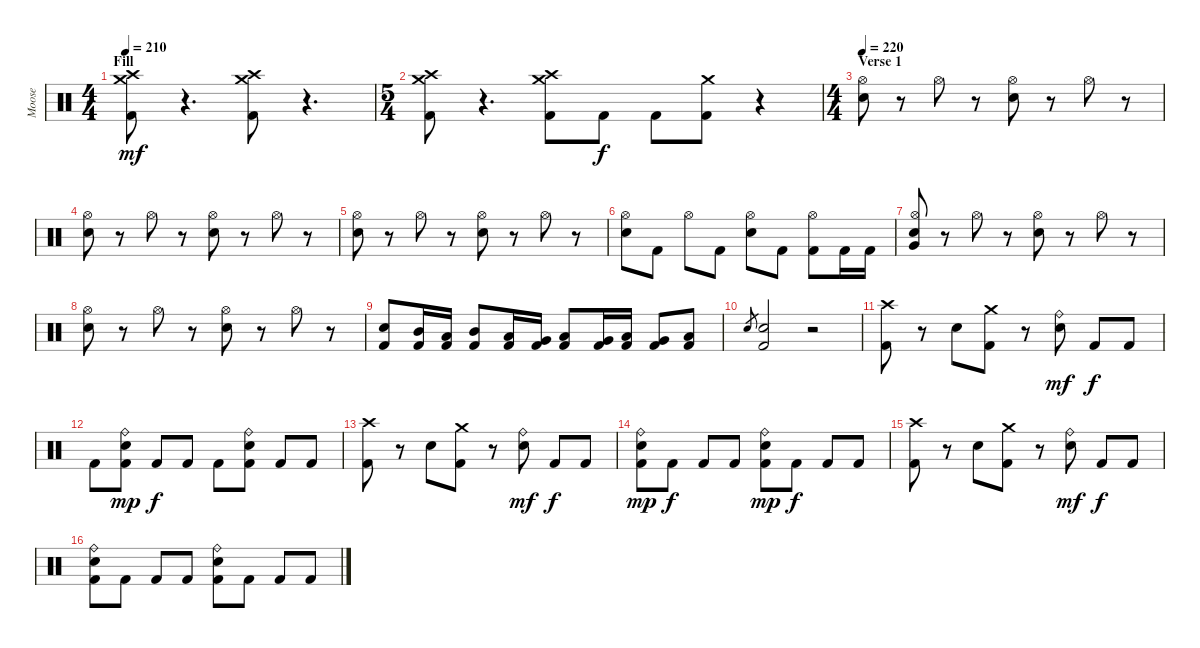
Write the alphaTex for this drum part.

\track ("Moose" "Moose") {instrument percussion}
\staff {score}
\articulation defaults
\ts (4 4)
\section ("" "Fill")
\tempo 210
\clef neutral
\ks c
("Kick (hit) 2" "Crash high (hit)" "Crash medium (hit)").8{dy mf} r.4{d} ("Kick (hit) 2" "Crash high (hit)" "Crash medium (hit)").8 r.4{d} |
\ts (5 4)
("Kick (hit) 2" "Crash high (hit)" "Crash medium (hit)").8 r.4{d} ("Kick (hit) 2" "Crash high (hit)" "Crash medium (hit)").8 "Kick (hit) 2".8{dy f} "Kick (hit) 2".8 ("Kick (hit) 2" "Crash medium (hit)").8 r.4 |
\ts (4 4)
\section ("" "Verse 1")
\tempo 220
("Snare (hit) 2" "Hi-Hat (open)").8 r.8 "Hi-Hat (open)".8 r.8 ("Snare (hit) 2" "Hi-Hat (open)").8 r.8 "Hi-Hat (open)".8 r.8 |
("Snare (hit) 2" "Hi-Hat (open)").8 r.8 "Hi-Hat (open)".8 r.8 ("Snare (hit) 2" "Hi-Hat (open)").8 r.8 "Hi-Hat (open)".8 r.8 |
("Snare (hit) 2" "Hi-Hat (open)").8 r.8 "Hi-Hat (open)".8 r.8 ("Snare (hit) 2" "Hi-Hat (open)").8 r.8 "Hi-Hat (open)".8 r.8 |
("Snare (hit) 2" "Hi-Hat (open)").8 "Kick (hit) 2".8 "Hi-Hat (open)".8 "Kick (hit) 2".8 ("Snare (hit) 2" "Hi-Hat (open)").8 "Kick (hit) 2".8 ("Kick (hit) 2" "Hi-Hat (open)").8 "Kick (hit) 2".16 "Kick (hit) 2".16 |
("Very Low Tom (hit)" "Snare (hit) 2" "Hi-Hat (open)").8 r.8 "Hi-Hat (open)".8 r.8 ("Snare (hit) 2" "Hi-Hat (open)").8 r.8 "Hi-Hat (open)".8 r.8 |
("Snare (hit) 2" "Hi-Hat (open)").8 r.8 "Hi-Hat (open)".8 r.8 ("Snare (hit) 2" "Hi-Hat (open)").8 r.8 "Hi-Hat (open)".8 r.8 |
("Kick (hit) 2" "Snare (hit) 2").8 ("Kick (hit) 2" "Mid Tom (hit)").16 ("Kick (hit) 2" "Low Tom (hit)").16 ("Kick (hit) 2" "Mid Tom (hit)").8 ("Kick (hit) 2" "Low Tom (hit)").16 ("Kick (hit) 2" "Very Low Tom (hit)").16 ("Kick (hit) 2" "Low Floor Tom (hit)").8 ("Kick (hit) 2" "Very Low Tom (hit)").16 ("Kick (hit) 2" "Low Floor Tom (hit)").16 ("Kick (hit) 2" "Very Low Tom (hit)").8 ("Kick (hit) 2" "Low Floor Tom (hit)").8 |
"Snare (hit) 2".8{gr} ("Kick (hit) 2" "Snare (hit) 2").2 r.2 |
("Kick (hit) 2" "Crash high (hit)").8 r.8 "Snare (hit) 2".8 ("Kick (hit) 2" "Crash medium (hit)").8 r.8 ("Snare (hit) 2" "Ride (bell)").8{dy mf} "Kick (hit) 2".8{dy f} "Kick (hit) 2".8 |
"Kick (hit) 2".8 ("Kick (hit) 2" "Snare (hit) 2" "Ride (bell)").8{dy mp} "Kick (hit) 2".8{dy f} "Kick (hit) 2".8 "Kick (hit) 2".8 ("Kick (hit) 2" "Snare (hit) 2" "Ride (bell)").8 "Kick (hit) 2".8 "Kick (hit) 2".8 |
("Kick (hit) 2" "Crash high (hit)").8 r.8 "Snare (hit) 2".8 ("Kick (hit) 2" "Crash medium (hit)").8 r.8 ("Snare (hit) 2" "Ride (bell)").8{dy mf} "Kick (hit) 2".8{dy f} "Kick (hit) 2".8 |
("Kick (hit) 2" "Snare (hit) 2" "Ride (bell)").8{dy mp} "Kick (hit) 2".8{dy f} "Kick (hit) 2".8 "Kick (hit) 2".8 ("Kick (hit) 2" "Snare (hit) 2" "Ride (bell)").8{dy mp} "Kick (hit) 2".8{dy f} "Kick (hit) 2".8 "Kick (hit) 2".8 |
("Kick (hit) 2" "Crash high (hit)").8 r.8 "Snare (hit) 2".8 ("Kick (hit) 2" "Crash medium (hit)").8 r.8 ("Snare (hit) 2" "Ride (bell)").8{dy mf} "Kick (hit) 2".8{dy f} "Kick (hit) 2".8 |
("Kick (hit) 2" "Snare (hit) 2" "Ride (bell)").8 "Kick (hit) 2".8 "Kick (hit) 2".8 "Kick (hit) 2".8 ("Kick (hit) 2" "Snare (hit) 2" "Ride (bell)").8 "Kick (hit) 2".8 "Kick (hit) 2".8 "Kick (hit) 2".8
